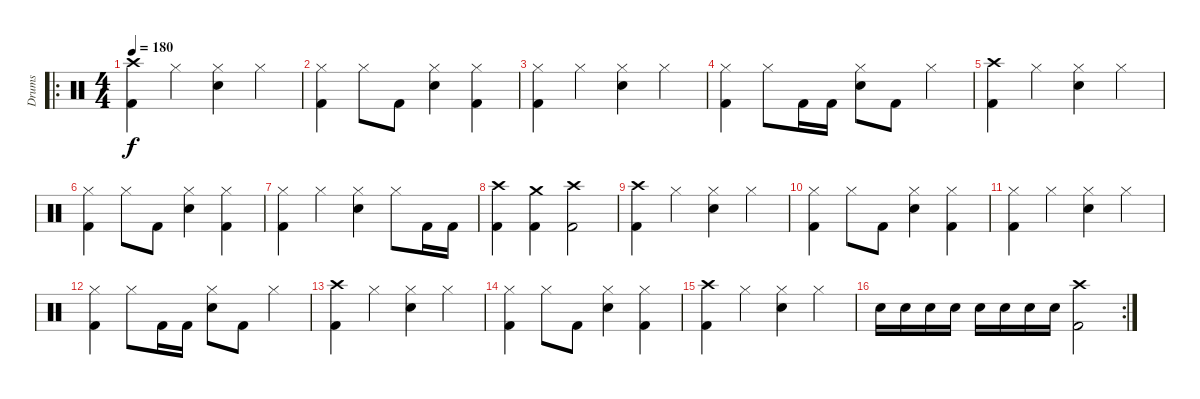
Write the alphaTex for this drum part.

\track ("Drums" "Drums") {instrument percussion}
\staff {score}
\articulation defaults
\ro
\ts (4 4)
\tempo 180
\clef neutral
\ks c
("Crash high (hit)" "Kick (hit) 2").4{dy f} "Hi-Hat (closed)".4 ("Hi-Hat (closed)" "Electric Snare (hit)").4 "Hi-Hat (closed)".4 |
("Hi-Hat (closed)" "Kick (hit) 2").4 "Hi-Hat (closed)".8 "Kick (hit) 2".8 ("Hi-Hat (closed)" "Electric Snare (hit)").4 ("Hi-Hat (closed)" "Kick (hit) 2").4 |
("Hi-Hat (closed)" "Kick (hit) 2").4 "Hi-Hat (closed)".4 ("Hi-Hat (closed)" "Electric Snare (hit)").4 "Hi-Hat (closed)".4 |
("Hi-Hat (closed)" "Kick (hit) 2").4 "Hi-Hat (closed)".8 "Kick (hit) 2".16 "Kick (hit) 2".16 ("Hi-Hat (closed)" "Electric Snare (hit)").8 "Kick (hit) 2".8 "Hi-Hat (closed)".4 |
("Crash high (hit)" "Kick (hit) 2").4 "Hi-Hat (closed)".4 ("Hi-Hat (closed)" "Electric Snare (hit)").4 "Hi-Hat (closed)".4 |
("Hi-Hat (closed)" "Kick (hit) 2").4 "Hi-Hat (closed)".8 "Kick (hit) 2".8 ("Hi-Hat (closed)" "Electric Snare (hit)").4 ("Hi-Hat (closed)" "Kick (hit) 2").4 |
("Hi-Hat (closed)" "Kick (hit) 2").4 "Hi-Hat (closed)".4 ("Hi-Hat (closed)" "Electric Snare (hit)").4 "Hi-Hat (closed)".8 "Kick (hit) 2".16 "Kick (hit) 2".16 |
("Crash high (hit)" "Kick (hit) 2").4 ("Crash medium (hit)" "Kick (hit) 2").4 ("Crash high (hit)" "Kick (hit) 2").2 |
("Crash high (hit)" "Kick (hit) 2").4 "Hi-Hat (closed)".4 ("Hi-Hat (closed)" "Electric Snare (hit)").4 "Hi-Hat (closed)".4 |
("Hi-Hat (closed)" "Kick (hit) 2").4 "Hi-Hat (closed)".8 "Kick (hit) 2".8 ("Hi-Hat (closed)" "Electric Snare (hit)").4 ("Hi-Hat (closed)" "Kick (hit) 2").4 |
("Hi-Hat (closed)" "Kick (hit) 2").4 "Hi-Hat (closed)".4 ("Hi-Hat (closed)" "Electric Snare (hit)").4 "Hi-Hat (closed)".4 |
("Hi-Hat (closed)" "Kick (hit) 2").4 "Hi-Hat (closed)".8 "Kick (hit) 2".16 "Kick (hit) 2".16 ("Hi-Hat (closed)" "Electric Snare (hit)").8 "Kick (hit) 2".8 "Hi-Hat (closed)".4 |
("Crash high (hit)" "Kick (hit) 2").4 "Hi-Hat (closed)".4 ("Hi-Hat (closed)" "Electric Snare (hit)").4 "Hi-Hat (closed)".4 |
("Hi-Hat (closed)" "Kick (hit) 2").4 "Hi-Hat (closed)".8 "Kick (hit) 2".8 ("Hi-Hat (closed)" "Electric Snare (hit)").4 ("Hi-Hat (closed)" "Kick (hit) 2").4 |
("Crash high (hit)" "Kick (hit) 2").4 "Hi-Hat (closed)".4 ("Hi-Hat (closed)" "Electric Snare (hit)").4 "Hi-Hat (closed)".4 |
\rc 2 "Electric Snare (hit)".16 "Electric Snare (hit)".16 "Electric Snare (hit)".16 "Electric Snare (hit)".16 "Electric Snare (hit)".16 "Electric Snare (hit)".16 "Electric Snare (hit)".16 "Electric Snare (hit)".16
("Crash high (hit)" "Kick (hit) 2").2
